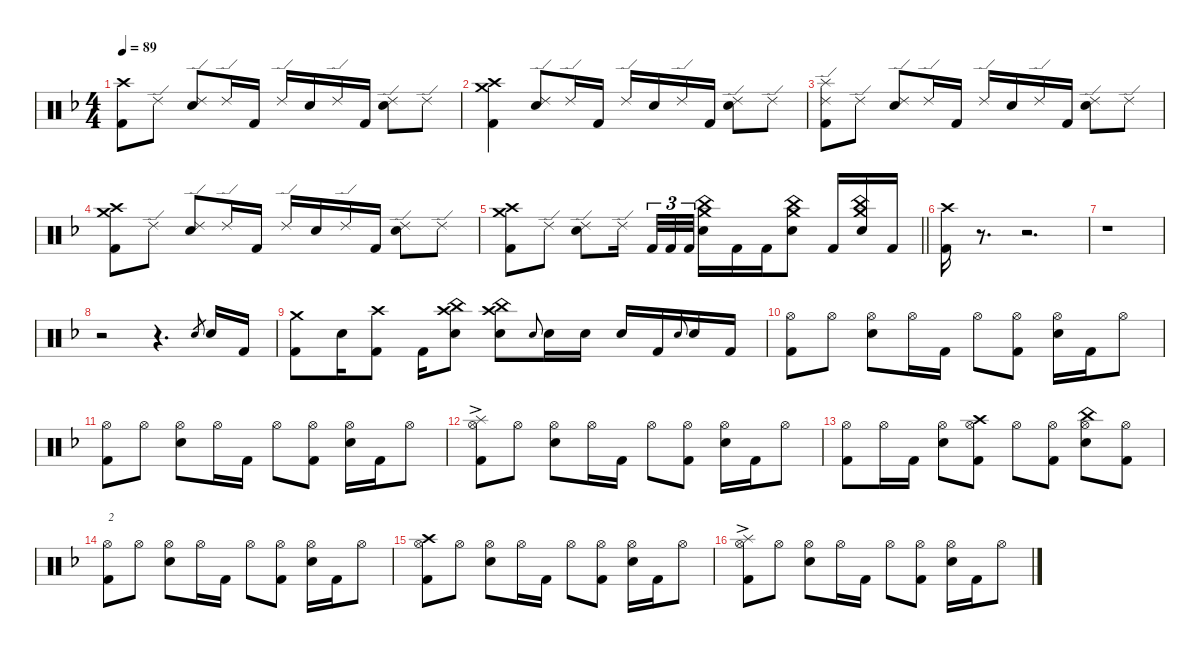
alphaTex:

\defaultSystemsLayout 4
\hideDynamics
\bracketExtendMode nobrackets
\singleTrackTrackNamePolicy hidden
\multiTrackTrackNamePolicy hidden
\firstSystemTrackNameMode fullname
\firstSystemTrackNameOrientation horizontal
\otherSystemsTrackNameOrientation horizontal
\track ("Martin Lopez - Drums" "drm.") {instrument percussion}
\staff {score}
\articulation defaults
\ts (4 4)
\tempo 89
\clef neutral
\ks f
("Crash high (hit)"{acc forcenatural} "Kick (hit) 2"{acc forcenatural}).8{dy mf beam Down} "Ride (edge) 2"{acc forcenatural}.8{dy f beam Down} ("Ride (edge) 2"{acc forcenatural} "Snare (hit) 2"{acc forcenatural}).8{dy mf beam Up} "Ride (edge) 2"{acc forcenatural}.16{dy f beam Up} "Kick (hit) 2"{acc forcenatural}.16{beam Up} "Ride (edge) 2"{acc forcenatural}.16{dy mf beam Up} "Snare (hit) 2"{acc forcenatural}.16{beam Up} "Ride (edge) 2"{acc forcenatural}.16{beam Up} "Kick (hit) 2"{acc forcenatural}.16{dy f beam Up} ("Ride (edge) 2"{acc forcenatural} "Snare (hit) 2"{acc forcenatural}).8{dy mf beam Down} "Ride (edge) 2"{acc forcenatural}.8{beam Down} |
("Crash high (hit)"{acc forcenatural} "Crash medium (hit)"{acc forcenatural} "Kick (hit) 2"{acc forcenatural}).4{beam Down} ("Ride (edge) 2"{acc forcenatural} "Snare (hit) 2"{acc forcenatural}).8{beam Up} "Ride (edge) 2"{acc forcenatural}.16{beam Up} "Kick (hit) 2"{acc forcenatural}.16{beam Up} "Ride (edge) 2"{acc forcenatural}.16{beam Up} "Snare (hit) 2"{acc forcenatural}.16{beam Up} "Ride (edge) 2"{acc forcenatural}.16{beam Up} "Kick (hit) 2"{acc forcenatural}.16{beam Up} ("Ride (edge) 2"{acc forcenatural} "Snare (hit) 2"{acc forcenatural}).8{beam Down} "Ride (edge) 2"{acc forcenatural}.8{beam Down} |
("Splash (hit)"{acc forcenatural} "Ride (edge) 2"{acc forcenatural} "Kick (hit) 2"{acc forcenatural}).8{beam Down} "Ride (edge) 2"{acc forcenatural}.8{dy f beam Down} ("Ride (edge) 2"{acc forcenatural} "Snare (hit) 2"{acc forcenatural}).8{dy mf beam Up} "Ride (edge) 2"{acc forcenatural}.16{dy f beam Up} "Kick (hit) 2"{acc forcenatural}.16{beam Up} "Ride (edge) 2"{acc forcenatural}.16{dy mf beam Up} "Snare (hit) 2"{acc forcenatural}.16{beam Up} "Ride (edge) 2"{acc forcenatural}.16{beam Up} "Kick (hit) 2"{acc forcenatural}.16{dy f beam Up} ("Ride (edge) 2"{acc forcenatural} "Snare (hit) 2"{acc forcenatural}).8{dy mf beam Down} "Ride (edge) 2"{acc forcenatural}.8{beam Down} |
("Crash high (hit)"{acc forcenatural} "Crash medium (hit)"{acc forcenatural} "Kick (hit) 2"{acc forcenatural}).8{beam Down} "Ride (edge) 2"{acc forcenatural}.8{dy f beam Down} ("Ride (edge) 2"{acc forcenatural} "Snare (hit) 2"{acc forcenatural}).8{dy mf beam Up} "Ride (edge) 2"{acc forcenatural}.16{beam Up} "Kick (hit) 2"{acc forcenatural}.16{beam Up} "Ride (edge) 2"{acc forcenatural}.16{beam Up} "Snare (hit) 2"{acc forcenatural}.16{beam Up} "Ride (edge) 2"{acc forcenatural}.16{beam Up} "Kick (hit) 2"{acc forcenatural}.16{beam Up} ("Ride (edge) 2"{acc forcenatural} "Snare (hit) 2"{acc forcenatural}).8{beam Down} "Ride (edge) 2"{acc forcenatural}.8{beam Down} |
\barLineRight lightlight
("Crash high (hit)"{acc forcenatural} "Crash medium (hit)"{acc forcenatural} "Kick (hit) 2"{acc forcenatural}).8{beam Down} "Ride (edge) 2"{acc forcenatural}.8{beam Down} ("Ride (edge) 2"{acc forcenatural} "Snare (hit) 2"{acc forcenatural}).8{beam Down} "Ride (edge) 2"{acc forcenatural}.16{beam Down} "Kick (hit) 2"{acc forcenatural}.32{tu (3 2) beam Up} "Kick (hit) 2"{acc forcenatural}.32{tu (3 2) beam Up} "Kick (hit) 2"{acc forcenatural}.32{tu (3 2) beam Up} ("Crash medium (hit)"{acc forcenatural} "China (hit)"{acc forcenatural} "Snare (hit) 2"{acc forcenatural}).16{beam Down} "Kick (hit) 2"{acc forcenatural}.16{beam Down} "Kick (hit) 2"{acc forcenatural}.16{beam Down} ("Crash medium (hit)"{acc forcenatural} "China (hit)"{acc forcenatural} "Snare (hit) 2"{acc forcenatural}).8{beam Down} "Kick (hit) 2"{acc forcenatural}.16{beam Up} ("Crash medium (hit)"{acc forcenatural} "China (hit)"{acc forcenatural} "Snare (hit) 2"{acc forcenatural}).16{beam Up} "Kick (hit) 2"{acc forcenatural}.16{beam Up} |
("Crash high (hit)"{acc forcenatural} "Kick (hit) 2"{acc forcenatural}).16{dy f beam Down} r.8{d beam Down} r.2{d beam Down} |
r.1{beam Down} |
r.2{beam Down} r.4{d beam Down} "Electric Snare (hit)"{acc forcenatural}.8{gr dy mf beam Up} "Snare (hit) 2"{acc forcenatural}.16{dy f beam Up} "Kick (hit) 2"{acc forcenatural}.16{beam Up} |
("Crash medium (hit)"{acc forcenatural} "Kick (hit) 2"{acc forcenatural}).8{beam Down} "Snare (hit) 2"{acc forcenatural}.16{beam Down} ("Crash high (hit)"{acc forcenatural} "Kick (hit) 2"{acc forcenatural}).8{beam Down} "Kick (hit) 2"{acc forcenatural}.16{beam Down} ("China (hit)"{acc forcenatural} "Crash high (hit)"{acc forcenatural} "Snare (hit) 2"{acc forcenatural}).8{beam Down} ("China (hit)"{acc forcenatural} "Crash high (hit)"{acc forcenatural} "Snare (hit) 2"{acc forcenatural}).8{beam Down} "Electric Snare (hit)"{acc forcenatural}.8{gr onbeat dy mf beam Up} "Snare (hit) 2"{acc forcenatural}.16{dy f beam Down} "Snare (hit) 2"{acc forcenatural}.16{beam Down} "Snare (hit) 2"{acc forcenatural}.16{beam Up} "Kick (hit) 2"{acc forcenatural}.16{beam Up} "Electric Snare (hit)"{acc forcenatural}.8{gr onbeat dy mf beam Up} "Snare (hit) 2"{acc forcenatural}.16{dy f beam Up} "Kick (hit) 2"{acc forcenatural}.16{beam Up} |
("Hi-Hat (open)"{acc forcenatural} "Kick (hit) 2"{acc forcenatural}).8{beam Down} "Hi-Hat (open)"{acc forcenatural}.8{beam Down} ("Hi-Hat (open)"{acc forcenatural} "Snare (hit) 2"{acc forcenatural}).8{beam Down} "Hi-Hat (open)"{acc forcenatural}.16{beam Down} "Kick (hit) 2"{acc forcenatural}.16{beam Down} "Hi-Hat (open)"{acc forcenatural}.8{beam Down} ("Hi-Hat (open)"{acc forcenatural} "Kick (hit) 2"{acc forcenatural}).8{beam Down} ("Hi-Hat (open)"{acc forcenatural} "Snare (hit) 2"{acc forcenatural}).16{beam Down} "Kick (hit) 2"{acc forcenatural}.16{beam Down} "Hi-Hat (open)"{acc forcenatural}.8{beam Down} |
("Hi-Hat (open)"{acc forcenatural} "Kick (hit) 2"{acc forcenatural}).8{beam Down} "Hi-Hat (open)"{acc forcenatural}.8{beam Down} ("Hi-Hat (open)"{acc forcenatural} "Snare (hit) 2"{acc forcenatural}).8{beam Down} "Hi-Hat (open)"{acc forcenatural}.16{beam Down} "Kick (hit) 2"{acc forcenatural}.16{beam Down} "Hi-Hat (open)"{acc forcenatural}.8{beam Down} ("Hi-Hat (open)"{acc forcenatural} "Kick (hit) 2"{acc forcenatural}).8{beam Down} ("Hi-Hat (open)"{acc forcenatural} "Snare (hit) 2"{acc forcenatural}).16{beam Down} "Kick (hit) 2"{acc forcenatural}.16{beam Down} "Hi-Hat (open)"{acc forcenatural}.8{beam Down} |
("Splash (hit)"{ac acc forcenatural} "Hi-Hat (open)"{acc forcenatural} "Kick (hit) 2"{acc forcenatural}).8{beam Down} "Hi-Hat (open)"{acc forcenatural}.8{beam Down} ("Hi-Hat (open)"{acc forcenatural} "Snare (hit) 2"{acc forcenatural}).8{beam Down} "Hi-Hat (open)"{acc forcenatural}.16{beam Down} "Kick (hit) 2"{acc forcenatural}.16{beam Down} "Hi-Hat (open)"{acc forcenatural}.8{beam Down} ("Hi-Hat (open)"{acc forcenatural} "Kick (hit) 2"{acc forcenatural}).8{beam Down} ("Hi-Hat (open)"{acc forcenatural} "Snare (hit) 2"{acc forcenatural}).16{beam Down} "Kick (hit) 2"{acc forcenatural}.16{beam Down} "Hi-Hat (open)"{acc forcenatural}.8{beam Down} |
("Hi-Hat (open)"{acc forcenatural} "Kick (hit) 2"{acc forcenatural}).8{beam Down} "Hi-Hat (open)"{acc forcenatural}.16{beam Down} "Kick (hit) 2"{acc forcenatural}.16{beam Down} ("Hi-Hat (open)"{acc forcenatural} "Snare (hit) 2"{acc forcenatural}).8{beam Down} ("Crash high (hit)"{acc forcenatural} "Hi-Hat (open)"{acc forcenatural} "Kick (hit) 2"{acc forcenatural}).8{beam Down} "Hi-Hat (open)"{acc forcenatural}.8{beam Down} ("Hi-Hat (open)"{acc forcenatural} "Kick (hit) 2"{acc forcenatural}).8{beam Down} ("China (hit)"{acc forcenatural} "Hi-Hat (open)"{acc forcenatural} "Snare (hit) 2"{acc forcenatural}).8{beam Down} ("Hi-Hat (open)"{acc forcenatural} "Kick (hit) 2"{acc forcenatural}).8{beam Down} |
("Hi-Hat (open)"{acc forcenatural} "Kick (hit) 2"{acc forcenatural}).8{txt "2" beam Down} "Hi-Hat (open)"{acc forcenatural}.8{beam Down} ("Hi-Hat (open)"{acc forcenatural} "Snare (hit) 2"{acc forcenatural}).8{beam Down} "Hi-Hat (open)"{acc forcenatural}.16{beam Down} "Kick (hit) 2"{acc forcenatural}.16{beam Down} "Hi-Hat (open)"{acc forcenatural}.8{beam Down} ("Hi-Hat (open)"{acc forcenatural} "Kick (hit) 2"{acc forcenatural}).8{beam Down} ("Hi-Hat (open)"{acc forcenatural} "Snare (hit) 2"{acc forcenatural}).16{beam Down} "Kick (hit) 2"{acc forcenatural}.16{beam Down} "Hi-Hat (open)"{acc forcenatural}.8{beam Down} |
("Crash high (hit)"{acc forcenatural} "Hi-Hat (open)"{acc forcenatural} "Kick (hit) 2"{acc forcenatural}).8{beam Down} "Hi-Hat (open)"{acc forcenatural}.8{beam Down} ("Hi-Hat (open)"{acc forcenatural} "Snare (hit) 2"{acc forcenatural}).8{beam Down} "Hi-Hat (open)"{acc forcenatural}.16{beam Down} "Kick (hit) 2"{acc forcenatural}.16{beam Down} "Hi-Hat (open)"{acc forcenatural}.8{beam Down} ("Hi-Hat (open)"{acc forcenatural} "Kick (hit) 2"{acc forcenatural}).8{beam Down} ("Hi-Hat (open)"{acc forcenatural} "Snare (hit) 2"{acc forcenatural}).16{beam Down} "Kick (hit) 2"{acc forcenatural}.16{beam Down} "Hi-Hat (open)"{acc forcenatural}.8{beam Down} |
("Splash (hit)"{ac acc forcenatural} "Hi-Hat (open)"{acc forcenatural} "Kick (hit) 2"{acc forcenatural}).8{beam Down} "Hi-Hat (open)"{acc forcenatural}.8{beam Down} ("Hi-Hat (open)"{acc forcenatural} "Snare (hit) 2"{acc forcenatural}).8{beam Down} "Hi-Hat (open)"{acc forcenatural}.16{beam Down} "Kick (hit) 2"{acc forcenatural}.16{beam Down} "Hi-Hat (open)"{acc forcenatural}.8{beam Down} ("Hi-Hat (open)"{acc forcenatural} "Kick (hit) 2"{acc forcenatural}).8{beam Down} ("Hi-Hat (open)"{acc forcenatural} "Snare (hit) 2"{acc forcenatural}).16{beam Down} "Kick (hit) 2"{acc forcenatural}.16{beam Down} "Hi-Hat (open)"{acc forcenatural}.8{beam Down}
